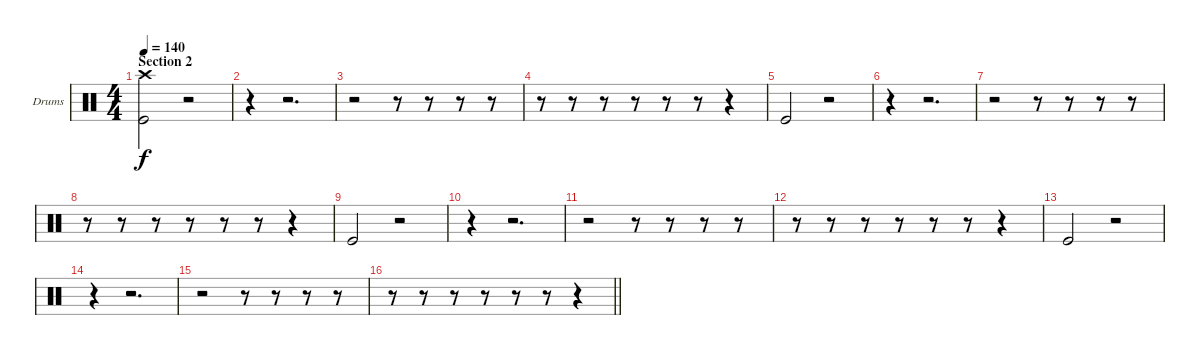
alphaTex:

\bracketExtendMode groupsimilarinstruments
\firstSystemTrackNameOrientation horizontal
\otherSystemsTrackNameOrientation horizontal
\track ("Drumkit" "Drums") {instrument percussion}
\staff {score}
\articulation defaults
\ts (4 4)
\section ("" "Section 2")
\tempo 140
\clef neutral
\ks c
("Crash high (hit)" "Kick (hit)").2{dy f} r.2 |
r.4 r.2{d} |
r.2 r.8 r.8 r.8 r.8 |
r.8 r.8 r.8 r.8 r.8 r.8 r.4 |
"Kick (hit)".2 r.2 |
r.4 r.2{d} |
r.2 r.8 r.8 r.8 r.8 |
r.8 r.8 r.8 r.8 r.8 r.8 r.4 |
"Kick (hit)".2 r.2 |
r.4 r.2{d} |
r.2 r.8 r.8 r.8 r.8 |
r.8 r.8 r.8 r.8 r.8 r.8 r.4 |
"Kick (hit)".2 r.2 |
r.4 r.2{d} |
r.2 r.8 r.8 r.8 r.8 |
\barLineRight lightlight
r.8 r.8 r.8 r.8 r.8 r.8 r.4
